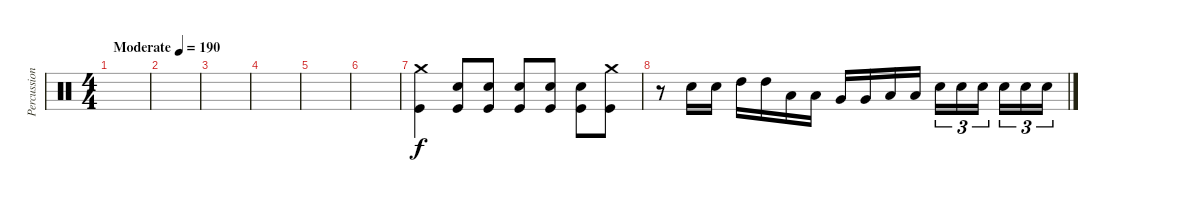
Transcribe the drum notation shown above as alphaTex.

\track ("Percussion" "Percussion") {instrument percussion}
\staff {score}
\articulation defaults
\ts (4 4)
\tempo (190 "Moderate")
\clef neutral
\ks c
|
|
|
|
|
|
("Crash medium (hit)" "Kick (hit)").4 ("Snare (hit) 2" "Kick (hit)").8 ("Snare (hit) 2" "Kick (hit)").8 ("Snare (hit) 2" "Kick (hit)").8 ("Snare (hit) 2" "Kick (hit)").8 ("Snare (hit) 2" "Kick (hit)").8 ("Crash medium (hit)" "Kick (hit)").8 |
r.8 "Snare (hit) 2".16 "Snare (hit) 2".16 "High Tom (hit)".16 "High Tom (hit)".16 "Low Tom (hit)".16 "Low Tom (hit)".16 "Very Low Tom (hit)".16 "Very Low Tom (hit)".16 "Low Floor Tom (hit)".16 "Low Floor Tom (hit)".16 "Snare (hit) 2".16{tu (3 2)} "Snare (hit) 2".16{tu (3 2)} "Snare (hit) 2".16{tu (3 2) beam splitsecondary} "Snare (hit) 2".16{tu (3 2)} "Snare (hit) 2".16{tu (3 2)} "Snare (hit) 2".16{tu (3 2)}
